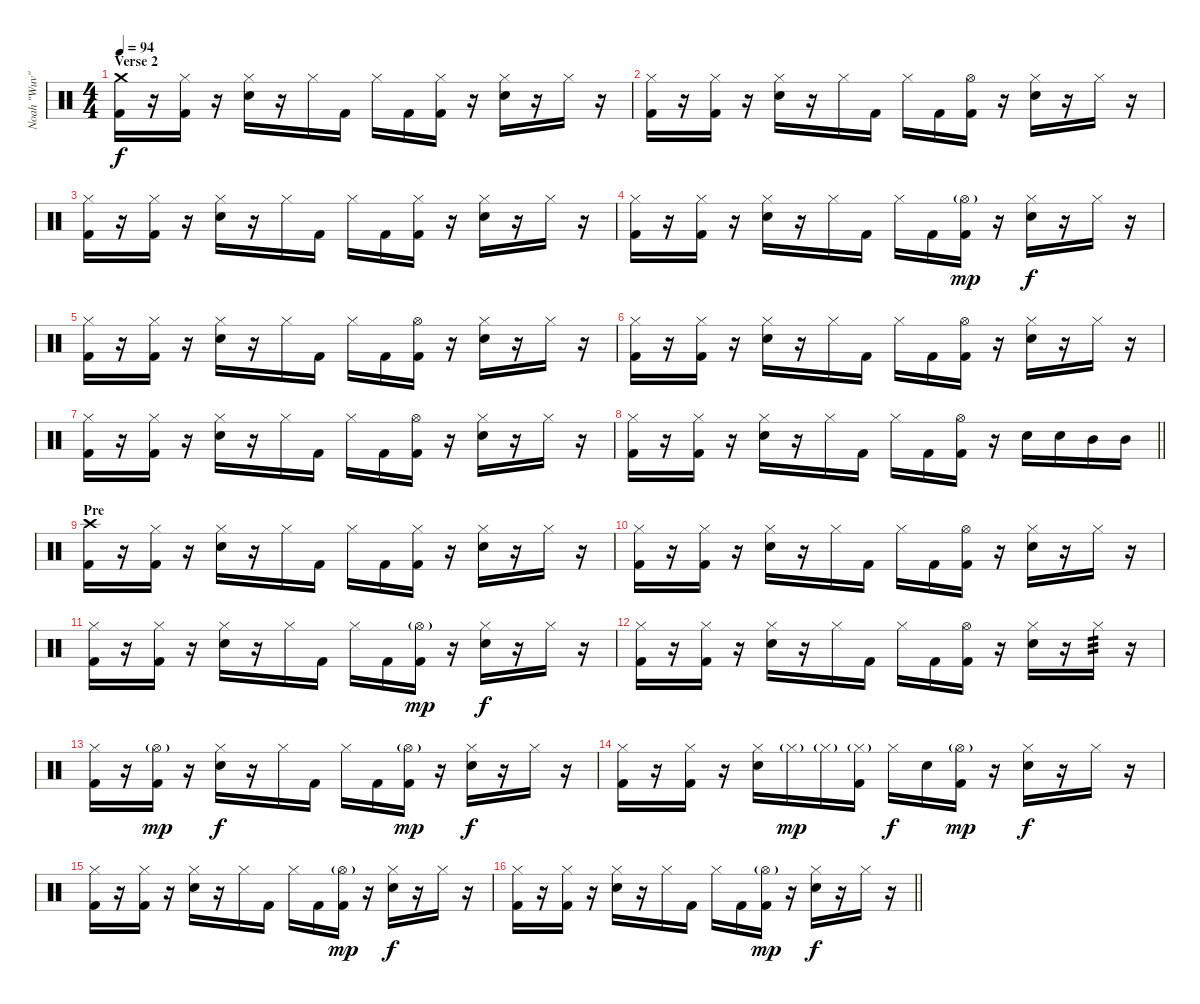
\track ("Noah \"Wuv\" Bernardo" "Noah \"Wuv\"") {instrument percussion}
\staff {score}
\articulation defaults
\ts (4 4)
\section ("" "Verse 2")
\tempo 94
\clef neutral
\ks c
("Crash medium (hit)" "Kick (hit) 2").16{dy f} r.16 ("Hi-Hat (closed)" "Kick (hit) 2").16 r.16 ("Hi-Hat (closed)" "Electric Snare (hit)").16 r.16 "Hi-Hat (closed)".16 "Kick (hit) 2".16 "Hi-Hat (closed)".16 "Kick (hit) 2".16 ("Hi-Hat (closed)" "Kick (hit) 2").16 r.16 ("Hi-Hat (closed)" "Electric Snare (hit)").16 r.16 "Hi-Hat (closed)".16 r.16 |
("Hi-Hat (closed)" "Kick (hit) 2").16 r.16 ("Hi-Hat (closed)" "Kick (hit) 2").16 r.16 ("Hi-Hat (closed)" "Electric Snare (hit)").16 r.16 "Hi-Hat (closed)".16 "Kick (hit) 2".16 "Hi-Hat (closed)".16 "Kick (hit) 2".16 ("Hi-Hat (open)" "Kick (hit) 2").16 r.16 ("Hi-Hat (closed)" "Electric Snare (hit)").16 r.16 "Hi-Hat (closed)".16 r.16 |
("Hi-Hat (closed)" "Kick (hit) 2").16 r.16 ("Hi-Hat (closed)" "Kick (hit) 2").16 r.16 ("Hi-Hat (closed)" "Electric Snare (hit)").16 r.16 "Hi-Hat (closed)".16 "Kick (hit) 2".16 "Hi-Hat (closed)".16 "Kick (hit) 2".16 ("Hi-Hat (closed)" "Kick (hit) 2").16 r.16 ("Hi-Hat (closed)" "Electric Snare (hit)").16 r.16 "Hi-Hat (closed)".16 r.16 |
("Hi-Hat (closed)" "Kick (hit) 2").16 r.16 ("Hi-Hat (closed)" "Kick (hit) 2").16 r.16 ("Hi-Hat (closed)" "Electric Snare (hit)").16 r.16 "Hi-Hat (closed)".16 "Kick (hit) 2".16 "Hi-Hat (closed)".16 "Kick (hit) 2".16 ("Hi-Hat (open)"{g} "Kick (hit) 2").16{dy mp} r.16 ("Hi-Hat (closed)" "Electric Snare (hit)").16{dy f} r.16 "Hi-Hat (closed)".16 r.16 |
("Hi-Hat (closed)" "Kick (hit) 2").16 r.16 ("Hi-Hat (closed)" "Kick (hit) 2").16 r.16 ("Hi-Hat (closed)" "Electric Snare (hit)").16 r.16 "Hi-Hat (closed)".16 "Kick (hit) 2".16 "Hi-Hat (closed)".16 "Kick (hit) 2".16 ("Hi-Hat (open)" "Kick (hit) 2").16 r.16 ("Hi-Hat (closed)" "Electric Snare (hit)").16 r.16 "Hi-Hat (closed)".16 r.16 |
("Hi-Hat (closed)" "Kick (hit) 2").16 r.16 ("Hi-Hat (closed)" "Kick (hit) 2").16 r.16 ("Hi-Hat (closed)" "Electric Snare (hit)").16 r.16 "Hi-Hat (closed)".16 "Kick (hit) 2".16 "Hi-Hat (closed)".16 "Kick (hit) 2".16 ("Hi-Hat (open)" "Kick (hit) 2").16 r.16 ("Hi-Hat (closed)" "Electric Snare (hit)").16 r.16 "Hi-Hat (closed)".16 r.16 |
("Hi-Hat (closed)" "Kick (hit) 2").16 r.16 ("Hi-Hat (closed)" "Kick (hit) 2").16 r.16 ("Hi-Hat (closed)" "Electric Snare (hit)").16 r.16 "Hi-Hat (closed)".16 "Kick (hit) 2".16 "Hi-Hat (closed)".16 "Kick (hit) 2".16 ("Hi-Hat (open)" "Kick (hit) 2").16 r.16 ("Hi-Hat (closed)" "Electric Snare (hit)").16 r.16 "Hi-Hat (closed)".16 r.16 |
\barLineRight lightlight
("Hi-Hat (closed)" "Kick (hit) 2").16 r.16 ("Hi-Hat (closed)" "Kick (hit) 2").16 r.16 ("Hi-Hat (closed)" "Electric Snare (hit)").16 r.16 "Hi-Hat (closed)".16 "Kick (hit) 2".16 "Hi-Hat (closed)".16 "Kick (hit) 2".16 ("Hi-Hat (open)" "Kick (hit) 2").16 r.16 "Electric Snare (hit)".16 "Electric Snare (hit)".16 "Mid Tom (hit)".16 "Mid Tom (hit)".16 |
\section ("" "Pre")
("Crash high (hit)" "Kick (hit) 2").16 r.16 ("Hi-Hat (closed)" "Kick (hit) 2").16 r.16 ("Hi-Hat (closed)" "Electric Snare (hit)").16 r.16 "Hi-Hat (closed)".16 "Kick (hit) 2".16 "Hi-Hat (closed)".16 "Kick (hit) 2".16 ("Hi-Hat (closed)" "Kick (hit) 2").16 r.16 ("Hi-Hat (closed)" "Electric Snare (hit)").16 r.16 "Hi-Hat (closed)".16 r.16 |
("Hi-Hat (closed)" "Kick (hit) 2").16 r.16 ("Hi-Hat (closed)" "Kick (hit) 2").16 r.16 ("Hi-Hat (closed)" "Electric Snare (hit)").16 r.16 "Hi-Hat (closed)".16 "Kick (hit) 2".16 "Hi-Hat (closed)".16 "Kick (hit) 2".16 ("Hi-Hat (open)" "Kick (hit) 2").16 r.16 ("Hi-Hat (closed)" "Electric Snare (hit)").16 r.16 "Hi-Hat (closed)".16 r.16 |
("Hi-Hat (closed)" "Kick (hit) 2").16 r.16 ("Hi-Hat (closed)" "Kick (hit) 2").16 r.16 ("Hi-Hat (closed)" "Electric Snare (hit)").16 r.16 "Hi-Hat (closed)".16 "Kick (hit) 2".16 "Hi-Hat (closed)".16 "Kick (hit) 2".16 ("Hi-Hat (open)"{g} "Kick (hit) 2").16{dy mp} r.16 ("Hi-Hat (closed)" "Electric Snare (hit)").16{dy f} r.16 "Hi-Hat (closed)".16 r.16 |
("Hi-Hat (closed)" "Kick (hit) 2").16 r.16 ("Hi-Hat (closed)" "Kick (hit) 2").16 r.16 ("Hi-Hat (closed)" "Electric Snare (hit)").16 r.16 "Hi-Hat (closed)".16 "Kick (hit) 2".16 "Hi-Hat (closed)".16 "Kick (hit) 2".16 ("Hi-Hat (open)" "Kick (hit) 2").16 r.16 ("Hi-Hat (closed)" "Electric Snare (hit)").16 r.16 "Hi-Hat (closed)".16{tp 3} r.16 |
("Hi-Hat (closed)" "Kick (hit) 2").16 r.16 ("Hi-Hat (open)"{g} "Kick (hit) 2").16{dy mp} r.16 ("Hi-Hat (closed)" "Electric Snare (hit)").16{dy f} r.16 "Hi-Hat (closed)".16 "Kick (hit) 2".16 "Hi-Hat (closed)".16 "Kick (hit) 2".16 ("Hi-Hat (open)"{g} "Kick (hit) 2").16{dy mp} r.16 ("Hi-Hat (closed)" "Electric Snare (hit)").16{dy f} r.16 "Hi-Hat (closed)".16 r.16 |
("Hi-Hat (closed)" "Kick (hit) 2").16 r.16 ("Hi-Hat (closed)" "Kick (hit) 2").16 r.16 ("Hi-Hat (closed)" "Electric Snare (hit)").16 "Hi-Hat (closed)"{g}.16{dy mp} "Hi-Hat (closed)"{g}.16 ("Hi-Hat (closed)"{g} "Kick (hit) 2").16 "Hi-Hat (closed)".16{dy f} "Electric Snare (hit)".16 ("Hi-Hat (open)"{g} "Kick (hit) 2").16{dy mp} r.16 ("Hi-Hat (closed)" "Electric Snare (hit)").16{dy f} r.16 "Hi-Hat (closed)".16 r.16 |
("Hi-Hat (closed)" "Kick (hit) 2").16 r.16 ("Hi-Hat (closed)" "Kick (hit) 2").16 r.16 ("Hi-Hat (closed)" "Electric Snare (hit)").16 r.16 "Hi-Hat (closed)".16 "Kick (hit) 2".16 "Hi-Hat (closed)".16 "Kick (hit) 2".16 ("Hi-Hat (open)"{g} "Kick (hit) 2").16{dy mp} r.16 ("Hi-Hat (closed)" "Electric Snare (hit)").16{dy f} r.16 "Hi-Hat (closed)".16 r.16 |
\barLineRight lightlight
("Hi-Hat (closed)" "Kick (hit) 2").16 r.16 ("Hi-Hat (closed)" "Kick (hit) 2").16 r.16 ("Hi-Hat (closed)" "Electric Snare (hit)").16 r.16 "Hi-Hat (closed)".16 "Kick (hit) 2".16 "Hi-Hat (closed)".16 "Kick (hit) 2".16 ("Hi-Hat (open)"{g} "Kick (hit) 2").16{dy mp} r.16 ("Hi-Hat (closed)" "Electric Snare (hit)").16{dy f} r.16 "Hi-Hat (closed)".16 r.16
